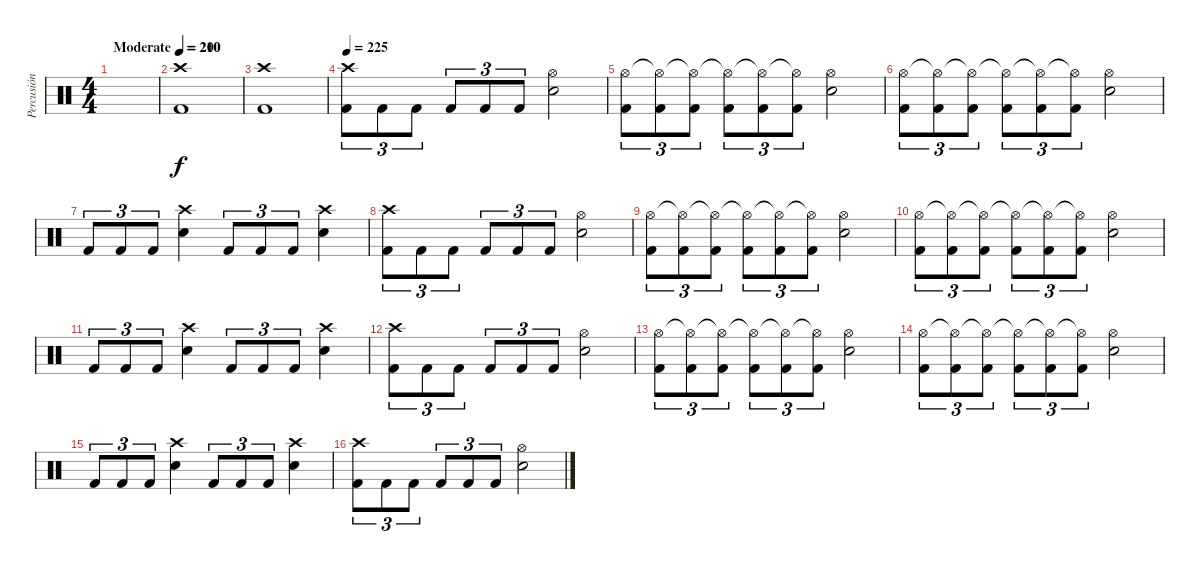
\track ("Percusión" "Percusión") {instrument percussion}
\staff {score}
\articulation defaults
\ts (4 4)
\tempo (210 "Moderate")
\clef neutral
\ks c
|
\tempo 200
("Kick (hit) 2" "Crash high (hit)").1 |
("Kick (hit) 2" "Crash high (hit)").1 |
\tempo 225
("Kick (hit) 2" "Crash high (hit)").8{tu (3 2)} "Kick (hit) 2".8{tu (3 2)} "Kick (hit) 2".8{tu (3 2)} "Kick (hit) 2".8{tu (3 2)} "Kick (hit) 2".8{tu (3 2)} "Kick (hit) 2".8{tu (3 2)} ("Snare (hit) 2" "Hi-Hat (open)").2 |
("Kick (hit) 2" "Hi-Hat (open)").8{tu (3 2)} ("Kick (hit) 2" "Hi-Hat (open)"{t}).8{tu (3 2)} ("Kick (hit) 2" "Hi-Hat (open)"{t}).8{tu (3 2)} ("Kick (hit) 2" "Hi-Hat (open)"{t}).8{tu (3 2)} ("Kick (hit) 2" "Hi-Hat (open)"{t}).8{tu (3 2)} ("Kick (hit) 2" "Hi-Hat (open)"{t}).8{tu (3 2)} ("Snare (hit) 2" "Hi-Hat (open)").2 |
("Kick (hit) 2" "Hi-Hat (open)").8{tu (3 2)} ("Kick (hit) 2" "Hi-Hat (open)"{t}).8{tu (3 2)} ("Kick (hit) 2" "Hi-Hat (open)"{t}).8{tu (3 2)} ("Kick (hit) 2" "Hi-Hat (open)"{t}).8{tu (3 2)} ("Kick (hit) 2" "Hi-Hat (open)"{t}).8{tu (3 2)} ("Kick (hit) 2" "Hi-Hat (open)"{t}).8{tu (3 2)} ("Snare (hit) 2" "Hi-Hat (open)").2 |
"Kick (hit) 2".8{tu (3 2)} "Kick (hit) 2".8{tu (3 2)} "Kick (hit) 2".8{tu (3 2)} ("Snare (hit) 2" "Crash high (hit)").4 "Kick (hit) 2".8{tu (3 2)} "Kick (hit) 2".8{tu (3 2)} "Kick (hit) 2".8{tu (3 2)} ("Snare (hit) 2" "Crash high (hit)").4 |
("Kick (hit) 2" "Crash high (hit)").8{tu (3 2)} "Kick (hit) 2".8{tu (3 2)} "Kick (hit) 2".8{tu (3 2)} "Kick (hit) 2".8{tu (3 2)} "Kick (hit) 2".8{tu (3 2)} "Kick (hit) 2".8{tu (3 2)} ("Snare (hit) 2" "Hi-Hat (open)").2 |
("Kick (hit) 2" "Hi-Hat (open)").8{tu (3 2)} ("Kick (hit) 2" "Hi-Hat (open)"{t}).8{tu (3 2)} ("Kick (hit) 2" "Hi-Hat (open)"{t}).8{tu (3 2)} ("Kick (hit) 2" "Hi-Hat (open)"{t}).8{tu (3 2)} ("Kick (hit) 2" "Hi-Hat (open)"{t}).8{tu (3 2)} ("Kick (hit) 2" "Hi-Hat (open)"{t}).8{tu (3 2)} ("Snare (hit) 2" "Hi-Hat (open)").2 |
("Kick (hit) 2" "Hi-Hat (open)").8{tu (3 2)} ("Kick (hit) 2" "Hi-Hat (open)"{t}).8{tu (3 2)} ("Kick (hit) 2" "Hi-Hat (open)"{t}).8{tu (3 2)} ("Kick (hit) 2" "Hi-Hat (open)"{t}).8{tu (3 2)} ("Kick (hit) 2" "Hi-Hat (open)"{t}).8{tu (3 2)} ("Kick (hit) 2" "Hi-Hat (open)"{t}).8{tu (3 2)} ("Snare (hit) 2" "Hi-Hat (open)").2 |
"Kick (hit) 2".8{tu (3 2)} "Kick (hit) 2".8{tu (3 2)} "Kick (hit) 2".8{tu (3 2)} ("Snare (hit) 2" "Crash high (hit)").4 "Kick (hit) 2".8{tu (3 2)} "Kick (hit) 2".8{tu (3 2)} "Kick (hit) 2".8{tu (3 2)} ("Snare (hit) 2" "Crash high (hit)").4 |
("Kick (hit) 2" "Crash high (hit)").8{tu (3 2)} "Kick (hit) 2".8{tu (3 2)} "Kick (hit) 2".8{tu (3 2)} "Kick (hit) 2".8{tu (3 2)} "Kick (hit) 2".8{tu (3 2)} "Kick (hit) 2".8{tu (3 2)} ("Snare (hit) 2" "Hi-Hat (open)").2 |
("Kick (hit) 2" "Hi-Hat (open)").8{tu (3 2)} ("Kick (hit) 2" "Hi-Hat (open)"{t}).8{tu (3 2)} ("Kick (hit) 2" "Hi-Hat (open)"{t}).8{tu (3 2)} ("Kick (hit) 2" "Hi-Hat (open)"{t}).8{tu (3 2)} ("Kick (hit) 2" "Hi-Hat (open)"{t}).8{tu (3 2)} ("Kick (hit) 2" "Hi-Hat (open)"{t}).8{tu (3 2)} ("Snare (hit) 2" "Hi-Hat (open)").2 |
("Kick (hit) 2" "Hi-Hat (open)").8{tu (3 2)} ("Kick (hit) 2" "Hi-Hat (open)"{t}).8{tu (3 2)} ("Kick (hit) 2" "Hi-Hat (open)"{t}).8{tu (3 2)} ("Kick (hit) 2" "Hi-Hat (open)"{t}).8{tu (3 2)} ("Kick (hit) 2" "Hi-Hat (open)"{t}).8{tu (3 2)} ("Kick (hit) 2" "Hi-Hat (open)"{t}).8{tu (3 2)} ("Snare (hit) 2" "Hi-Hat (open)").2 |
"Kick (hit) 2".8{tu (3 2)} "Kick (hit) 2".8{tu (3 2)} "Kick (hit) 2".8{tu (3 2)} ("Snare (hit) 2" "Crash high (hit)").4 "Kick (hit) 2".8{tu (3 2)} "Kick (hit) 2".8{tu (3 2)} "Kick (hit) 2".8{tu (3 2)} ("Snare (hit) 2" "Crash high (hit)").4 |
("Kick (hit) 2" "Crash high (hit)").8{tu (3 2)} "Kick (hit) 2".8{tu (3 2)} "Kick (hit) 2".8{tu (3 2)} "Kick (hit) 2".8{tu (3 2)} "Kick (hit) 2".8{tu (3 2)} "Kick (hit) 2".8{tu (3 2)} ("Snare (hit) 2" "Hi-Hat (open)").2
